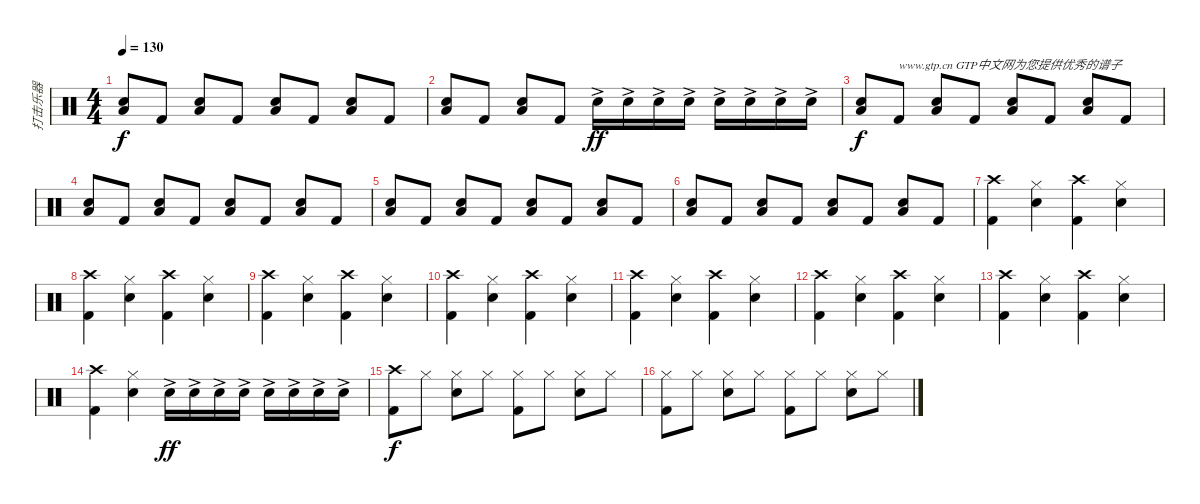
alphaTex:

\track ("打击乐器" "打击乐器") {instrument percussion}
\staff {score}
\articulation defaults
\ts (4 4)
\tempo 130
\clef neutral
\ks c
("Snare (hit) 2" "Low Tom (hit)").8{dy f} "Kick (hit) 2".8 ("Snare (hit) 2" "Low Tom (hit)").8 "Kick (hit) 2".8 ("Snare (hit) 2" "Low Tom (hit)").8 "Kick (hit) 2".8 ("Snare (hit) 2" "Low Tom (hit)").8 "Kick (hit) 2".8 |
("Snare (hit) 2" "Low Tom (hit)").8 "Kick (hit) 2".8 ("Snare (hit) 2" "Low Tom (hit)").8 "Kick (hit) 2".8 "Snare (hit) 2"{ac}.16{dy ff} "Snare (hit) 2"{ac}.16 "Snare (hit) 2"{ac}.16 "Snare (hit) 2"{ac}.16 "Snare (hit) 2"{ac}.16 "Snare (hit) 2"{ac}.16 "Snare (hit) 2"{ac}.16 "Snare (hit) 2"{ac}.16 |
("Snare (hit) 2" "Low Tom (hit)").8{dy f} "Kick (hit) 2".8{txt "www.gtp.cn GTP中文网为您提供优秀的谱子"} ("Snare (hit) 2" "Low Tom (hit)").8 "Kick (hit) 2".8 ("Snare (hit) 2" "Low Tom (hit)").8 "Kick (hit) 2".8 ("Snare (hit) 2" "Low Tom (hit)").8 "Kick (hit) 2".8 |
("Snare (hit) 2" "Low Tom (hit)").8 "Kick (hit) 2".8 ("Snare (hit) 2" "Low Tom (hit)").8 "Kick (hit) 2".8 ("Snare (hit) 2" "Low Tom (hit)").8 "Kick (hit) 2".8 ("Snare (hit) 2" "Low Tom (hit)").8 "Kick (hit) 2".8 |
("Snare (hit) 2" "Low Tom (hit)").8 "Kick (hit) 2".8 ("Snare (hit) 2" "Low Tom (hit)").8 "Kick (hit) 2".8 ("Snare (hit) 2" "Low Tom (hit)").8 "Kick (hit) 2".8 ("Snare (hit) 2" "Low Tom (hit)").8 "Kick (hit) 2".8 |
("Snare (hit) 2" "Low Tom (hit)").8 "Kick (hit) 2".8 ("Snare (hit) 2" "Low Tom (hit)").8 "Kick (hit) 2".8 ("Snare (hit) 2" "Low Tom (hit)").8 "Kick (hit) 2".8 ("Snare (hit) 2" "Low Tom (hit)").8 "Kick (hit) 2".8 |
("Kick (hit) 2" "Crash high (hit)").4 ("Snare (hit) 2" "Hi-Hat (closed)").4 ("Kick (hit) 2" "Crash high (hit)").4 ("Snare (hit) 2" "Hi-Hat (closed)").4 |
("Kick (hit) 2" "Crash high (hit)").4 ("Snare (hit) 2" "Hi-Hat (closed)").4 ("Kick (hit) 2" "Crash high (hit)").4 ("Snare (hit) 2" "Hi-Hat (closed)").4 |
("Kick (hit) 2" "Crash high (hit)").4 ("Snare (hit) 2" "Hi-Hat (closed)").4 ("Kick (hit) 2" "Crash high (hit)").4 ("Snare (hit) 2" "Hi-Hat (closed)").4 |
("Kick (hit) 2" "Crash high (hit)").4 ("Snare (hit) 2" "Hi-Hat (closed)").4 ("Kick (hit) 2" "Crash high (hit)").4 ("Snare (hit) 2" "Hi-Hat (closed)").4 |
("Kick (hit) 2" "Crash high (hit)").4 ("Snare (hit) 2" "Hi-Hat (closed)").4 ("Kick (hit) 2" "Crash high (hit)").4 ("Snare (hit) 2" "Hi-Hat (closed)").4 |
("Kick (hit) 2" "Crash high (hit)").4 ("Snare (hit) 2" "Hi-Hat (closed)").4 ("Kick (hit) 2" "Crash high (hit)").4 ("Snare (hit) 2" "Hi-Hat (closed)").4 |
("Kick (hit) 2" "Crash high (hit)").4 ("Snare (hit) 2" "Hi-Hat (closed)").4 ("Kick (hit) 2" "Crash high (hit)").4 ("Snare (hit) 2" "Hi-Hat (closed)").4 |
("Kick (hit) 2" "Crash high (hit)").4 ("Snare (hit) 2" "Hi-Hat (closed)").4 "Snare (hit) 2"{ac}.16{dy ff} "Snare (hit) 2"{ac}.16 "Snare (hit) 2"{ac}.16 "Snare (hit) 2"{ac}.16 "Snare (hit) 2"{ac}.16 "Snare (hit) 2"{ac}.16 "Snare (hit) 2"{ac}.16 "Snare (hit) 2"{ac}.16 |
("Kick (hit) 2" "Crash high (hit)").8{dy f} "Hi-Hat (closed)".8 ("Snare (hit) 2" "Hi-Hat (closed)").8 "Hi-Hat (closed)".8 ("Kick (hit) 2" "Hi-Hat (closed)").8 "Hi-Hat (closed)".8 ("Snare (hit) 2" "Hi-Hat (closed)").8 "Hi-Hat (closed)".8 |
("Kick (hit) 2" "Hi-Hat (closed)").8 "Hi-Hat (closed)".8 ("Snare (hit) 2" "Hi-Hat (closed)").8 "Hi-Hat (closed)".8 ("Kick (hit) 2" "Hi-Hat (closed)").8 "Hi-Hat (closed)".8 ("Snare (hit) 2" "Hi-Hat (closed)").8 "Hi-Hat (closed)".8
